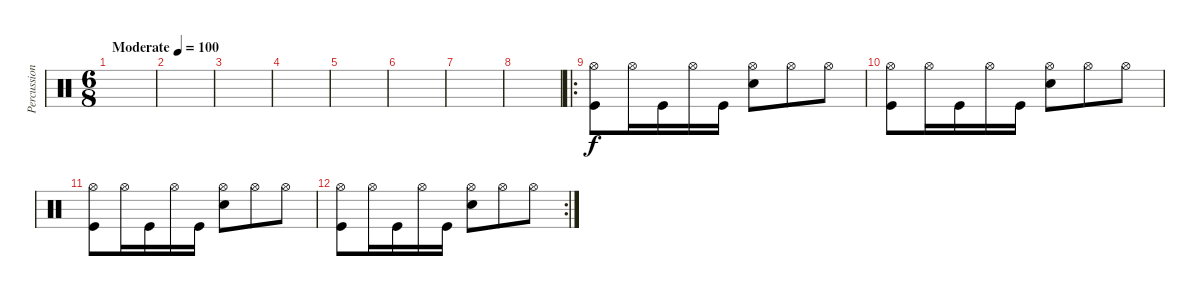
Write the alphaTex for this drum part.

\track ("Percussion" "Percussion") {instrument percussion}
\staff {score}
\articulation defaults
\ts (6 8)
\tempo (100 "Moderate")
\clef neutral
\ks c
|
|
|
|
|
|
|
|
\ro
("Hi-Hat (open)" "Kick (hit)").8 "Hi-Hat (open)".16 "Kick (hit)".16 "Hi-Hat (open)".16 "Kick (hit)".16 ("Hi-Hat (open)" "Snare (hit) 2").8 "Hi-Hat (open)".8 "Hi-Hat (open)".8 |
("Hi-Hat (open)" "Kick (hit)").8 "Hi-Hat (open)".16 "Kick (hit)".16 "Hi-Hat (open)".16 "Kick (hit)".16 ("Hi-Hat (open)" "Snare (hit) 2").8 "Hi-Hat (open)".8 "Hi-Hat (open)".8 |
("Hi-Hat (open)" "Kick (hit)").8 "Hi-Hat (open)".16 "Kick (hit)".16 "Hi-Hat (open)".16 "Kick (hit)".16 ("Hi-Hat (open)" "Snare (hit) 2").8 "Hi-Hat (open)".8 "Hi-Hat (open)".8 |
\rc 2
("Hi-Hat (open)" "Kick (hit)").8 "Hi-Hat (open)".16 "Kick (hit)".16 "Hi-Hat (open)".16 "Kick (hit)".16 ("Hi-Hat (open)" "Snare (hit) 2").8 "Hi-Hat (open)".8 "Hi-Hat (open)".8
